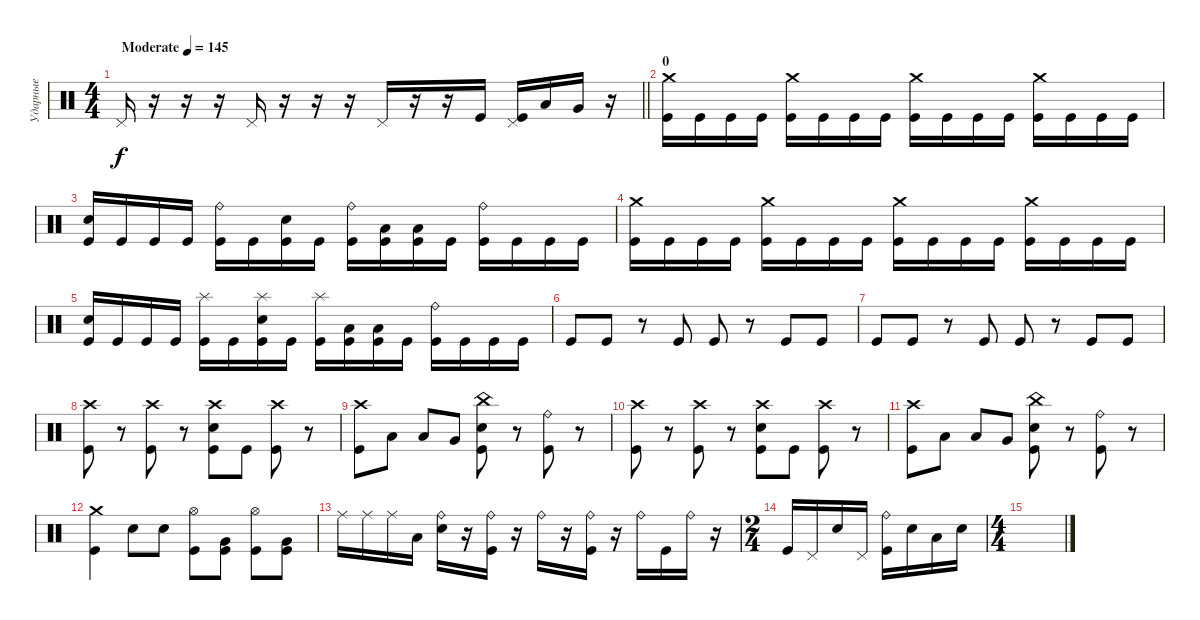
\track ("Ударные" "Ударные") {instrument percussion}
\staff {score}
\articulation defaults
\ts (4 4)
\tempo (145 "Moderate")
\clef neutral
\barLineRight lightlight
\ks c "Pedal Hi-Hat (hit)".16{dy f}
r.16 r.16 r.16 "Pedal Hi-Hat (hit)".16 r.16 r.16 r.16 "Pedal Hi-Hat (hit)".16 r.16 r.16 "Kick (hit)".16 ("Pedal Hi-Hat (hit)" "Kick (hit)").16 "Low Tom (hit)".16 "Very Low Tom (hit)".16 r.16 |
\section ("" "0")
("Crash medium (hit)" "Kick (hit)").16 "Kick (hit)".16 "Kick (hit)".16 "Kick (hit)".16 ("Crash medium (hit)" "Kick (hit)").16 "Kick (hit)".16 "Kick (hit)".16 "Kick (hit)".16 ("Crash medium (hit)" "Kick (hit)").16 "Kick (hit)".16 "Kick (hit)".16 "Kick (hit)".16 ("Crash medium (hit)" "Kick (hit)").16 "Kick (hit)".16 "Kick (hit)".16 "Kick (hit)".16 |
("Electric Snare (hit)" "Kick (hit)").16 "Kick (hit)".16 "Kick (hit)".16 "Kick (hit)".16 ("Ride (bell)" "Kick (hit)").16 "Kick (hit)".16 ("Electric Snare (hit)" "Kick (hit)").16 "Kick (hit)".16 ("Ride (bell)" "Kick (hit)").16 ("Low Tom (hit)" "Kick (hit)").16 ("Low Tom (hit)" "Kick (hit)").16 "Kick (hit)".16 ("Ride (bell)" "Kick (hit)").16 "Kick (hit)".16 "Kick (hit)".16 "Kick (hit)".16 |
("Crash medium (hit)" "Kick (hit)").16 "Kick (hit)".16 "Kick (hit)".16 "Kick (hit)".16 ("Crash medium (hit)" "Kick (hit)").16 "Kick (hit)".16 "Kick (hit)".16 "Kick (hit)".16 ("Crash medium (hit)" "Kick (hit)").16 "Kick (hit)".16 "Kick (hit)".16 "Kick (hit)".16 ("Crash medium (hit)" "Kick (hit)").16 "Kick (hit)".16 "Kick (hit)".16 "Kick (hit)".16 |
("Electric Snare (hit)" "Kick (hit)").16 "Kick (hit)".16 "Kick (hit)".16 "Kick (hit)".16 ("Splash (hit)" "Kick (hit)").16 "Kick (hit)".16 ("Splash (hit)" "Electric Snare (hit)" "Kick (hit)").16 "Kick (hit)".16 ("Splash (hit)" "Kick (hit)").16 ("Low Tom (hit)" "Kick (hit)").16 ("Low Tom (hit)" "Kick (hit)").16 "Kick (hit)".16 ("Ride (bell)" "Kick (hit)").16 "Kick (hit)".16 "Kick (hit)".16 "Kick (hit)".16 |
"Kick (hit)".8 "Kick (hit)".8 r.8 "Kick (hit)".8 "Kick (hit)".8 r.8 "Kick (hit)".8 "Kick (hit)".8 |
"Kick (hit)".8 "Kick (hit)".8 r.8 "Kick (hit)".8 "Kick (hit)".8 r.8 "Kick (hit)".8 "Kick (hit)".8 |
("Crash high (hit)" "Kick (hit)").8 r.8 ("Crash high (hit)" "Kick (hit)").8 r.8 ("Crash high (hit)" "Electric Snare (hit)" "Kick (hit)").8 "Kick (hit)".8 ("Crash high (hit)" "Kick (hit)").8 r.8 |
("Crash high (hit)" "Kick (hit)").8 "Low Tom (hit)".8 "Low Tom (hit)".8 "Very Low Tom (hit)".8 ("China (hit)" "Electric Snare (hit)" "Kick (hit)").8 r.8 ("Ride (bell)" "Kick (hit)").8 r.8 |
("Crash high (hit)" "Kick (hit)").8 r.8 ("Crash high (hit)" "Kick (hit)").8 r.8 ("Crash high (hit)" "Electric Snare (hit)" "Kick (hit)").8 "Kick (hit)".8 ("Crash high (hit)" "Kick (hit)").8 r.8 |
("Crash high (hit)" "Kick (hit)").8 "Low Tom (hit)".8 "Low Tom (hit)".8 "Very Low Tom (hit)".8 ("China (hit)" "Electric Snare (hit)" "Kick (hit)").8 r.8 ("Ride (bell)" "Kick (hit)").8 r.8 |
("Crash medium (hit)" "Kick (hit)").4 "Electric Snare (hit)".8 "Electric Snare (hit)".8 ("Hi-Hat (open)" "Kick (hit)").8 ("Very Low Tom (hit)" "Kick (hit)").8 ("Hi-Hat (open)" "Kick (hit)").8 ("Very Low Tom (hit)" "Kick (hit)").8 |
"Ride (middle)".16 "Ride (middle)".16 "Ride (middle)".16 "Low Tom (hit)".16 ("Ride (bell)" "Electric Snare (hit)").16 r.16 ("Ride (bell)" "Kick (hit)").16 r.16 "Ride (bell)".16 r.16 ("Ride (bell)" "Kick (hit)").16 r.16 "Ride (bell)".16 "Kick (hit)".16 "Ride (bell)".16 r.16 |
\ts (2 4)
"Kick (hit)".16 "Pedal Hi-Hat (hit)".16 "Electric Snare (hit)".16 "Pedal Hi-Hat (hit)".16 ("Ride (bell)" "Kick (hit)").16 "Electric Snare (hit)".16 "Low Tom (hit)".16 "Electric Snare (hit)".16 |
\ts (4 4)
